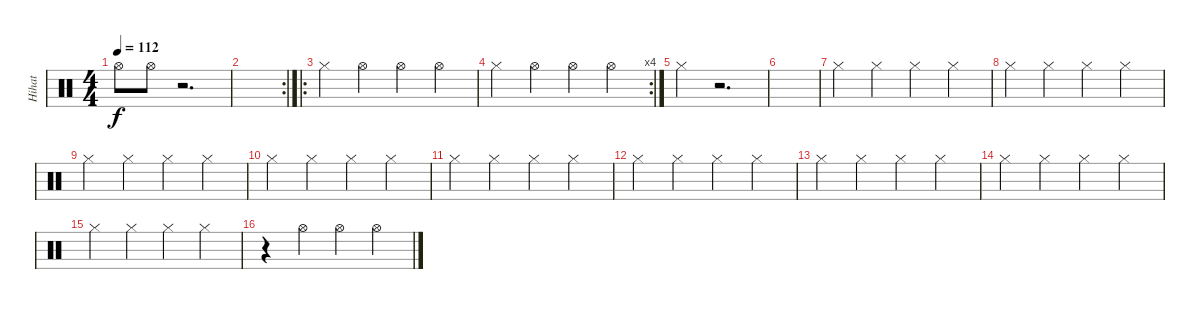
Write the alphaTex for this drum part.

\track ("Hihat" "Hihat") {instrument percussion}
\staff {score}
\articulation defaults
\ts (4 4)
\tempo 112
\clef neutral
\ks c "Hi-Hat (open)".8{dy f} "Hi-Hat (open)".8
r.2{d} |
\rc 2
|
\ro "Hi-Hat (closed)".4 "Hi-Hat (open)".4 "Hi-Hat (open)".4 "Hi-Hat (open)".4
|
\rc 4 "Hi-Hat (closed)".4 "Hi-Hat (open)".4 "Hi-Hat (open)".4 "Hi-Hat (open)".4
|
"Hi-Hat (closed)".4 r.2{d} |
|
"Hi-Hat (closed)".4 "Hi-Hat (closed)".4 "Hi-Hat (closed)".4 "Hi-Hat (closed)".4 |
"Hi-Hat (closed)".4 "Hi-Hat (closed)".4 "Hi-Hat (closed)".4 "Hi-Hat (closed)".4 |
"Hi-Hat (closed)".4 "Hi-Hat (closed)".4 "Hi-Hat (closed)".4 "Hi-Hat (closed)".4 |
"Hi-Hat (closed)".4 "Hi-Hat (closed)".4 "Hi-Hat (closed)".4 "Hi-Hat (closed)".4 |
"Hi-Hat (closed)".4 "Hi-Hat (closed)".4 "Hi-Hat (closed)".4 "Hi-Hat (closed)".4 |
"Hi-Hat (closed)".4 "Hi-Hat (closed)".4 "Hi-Hat (closed)".4 "Hi-Hat (closed)".4 |
"Hi-Hat (closed)".4 "Hi-Hat (closed)".4 "Hi-Hat (closed)".4 "Hi-Hat (closed)".4 |
"Hi-Hat (closed)".4 "Hi-Hat (closed)".4 "Hi-Hat (closed)".4 "Hi-Hat (closed)".4 |
"Hi-Hat (closed)".4 "Hi-Hat (closed)".4 "Hi-Hat (closed)".4 "Hi-Hat (closed)".4 |
r.4 "Hi-Hat (open)".4 "Hi-Hat (open)".4 "Hi-Hat (open)".4
